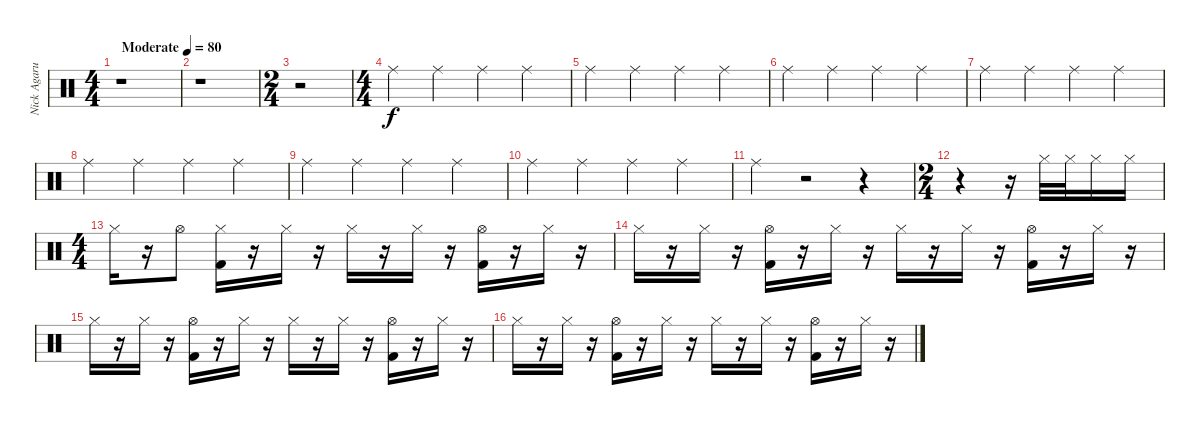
\track ("Nick Agarua" "Nick Agaru") {instrument percussion}
\staff {score}
\articulation defaults
\ts (4 4)
\tempo (80 "Moderate")
\clef neutral
\ks c
r.1{dy f} |
r.1 |
\ts (2 4)
r.2 |
\ts (4 4)
"Ride (middle)".4 "Ride (middle)".4 "Ride (middle)".4 "Ride (middle)".4 |
"Ride (middle)".4 "Ride (middle)".4 "Ride (middle)".4 "Ride (middle)".4 |
"Ride (middle)".4 "Ride (middle)".4 "Ride (middle)".4 "Ride (middle)".4 |
"Ride (middle)".4 "Ride (middle)".4 "Ride (middle)".4 "Ride (middle)".4 |
"Ride (middle)".4 "Ride (middle)".4 "Ride (middle)".4 "Ride (middle)".4 |
"Ride (middle)".4 "Ride (middle)".4 "Ride (middle)".4 "Ride (middle)".4 |
"Ride (middle)".4 "Ride (middle)".4 "Ride (middle)".4 "Ride (middle)".4 |
"Ride (middle)".4 r.2 r.4 |
\ts (2 4)
r.4 r.16 "Hi-Hat (closed)".32 "Hi-Hat (closed)".32 "Hi-Hat (closed)".16 "Hi-Hat (closed)".16 |
\ts (4 4)
"Hi-Hat (closed)".16 r.16 "Hi-Hat (open)".8 ("Hi-Hat (closed)" "Kick (hit) 2").16 r.16 "Hi-Hat (closed)".16 r.16 "Hi-Hat (closed)".16 r.16 "Hi-Hat (closed)".16 r.16 ("Hi-Hat (open)" "Kick (hit) 2").16 r.16 "Hi-Hat (closed)".16 r.16 |
"Hi-Hat (closed)".16 r.16 "Hi-Hat (closed)".16 r.16 ("Hi-Hat (open)" "Kick (hit) 2").16 r.16 "Hi-Hat (closed)".16 r.16 "Hi-Hat (closed)".16 r.16 "Hi-Hat (closed)".16 r.16 ("Hi-Hat (open)" "Kick (hit) 2").16 r.16 "Hi-Hat (closed)".16 r.16 |
"Hi-Hat (closed)".16 r.16 "Hi-Hat (closed)".16 r.16 ("Hi-Hat (open)" "Kick (hit) 2").16 r.16 "Hi-Hat (closed)".16 r.16 "Hi-Hat (closed)".16 r.16 "Hi-Hat (closed)".16 r.16 ("Hi-Hat (open)" "Kick (hit) 2").16 r.16 "Hi-Hat (closed)".16 r.16 |
"Hi-Hat (closed)".16 r.16 "Hi-Hat (closed)".16 r.16 ("Hi-Hat (open)" "Kick (hit) 2").16 r.16 "Hi-Hat (closed)".16 r.16 "Hi-Hat (closed)".16 r.16 "Hi-Hat (closed)".16 r.16 ("Hi-Hat (open)" "Kick (hit) 2").16 r.16 "Hi-Hat (closed)".16 r.16
